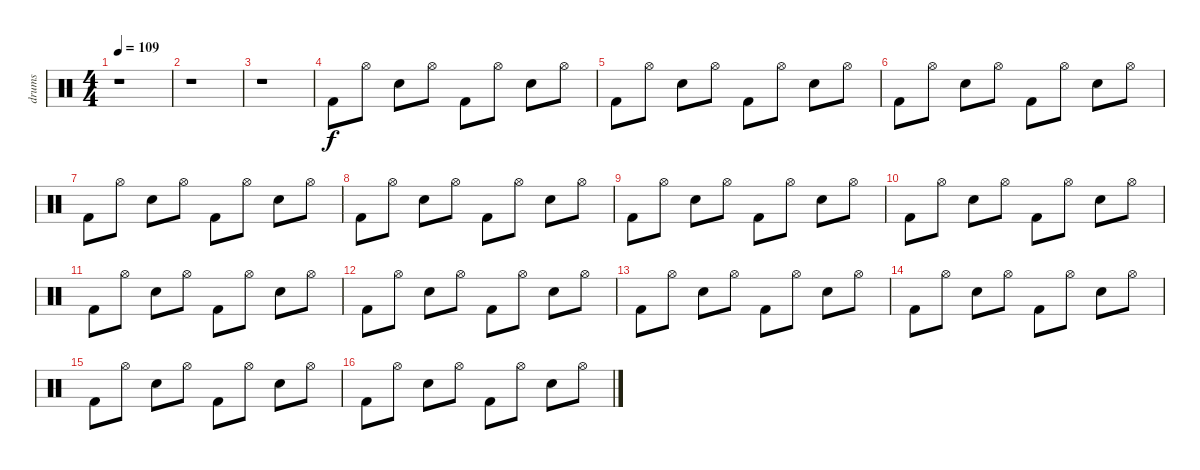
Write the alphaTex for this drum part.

\track ("drums" "drums") {instrument percussion}
\staff {score}
\articulation defaults
\ts (4 4)
\tempo 109
\clef neutral
\ks c
r.1{dy f} |
r.1 |
r.1 |
"Kick (hit) 2".8 "Hi-Hat (open)".8 "Snare (hit) 2".8 "Hi-Hat (open)".8 "Kick (hit) 2".8 "Hi-Hat (open)".8 "Snare (hit) 2".8 "Hi-Hat (open)".8 |
"Kick (hit) 2".8 "Hi-Hat (open)".8 "Snare (hit) 2".8 "Hi-Hat (open)".8 "Kick (hit) 2".8 "Hi-Hat (open)".8 "Snare (hit) 2".8 "Hi-Hat (open)".8 |
"Kick (hit) 2".8 "Hi-Hat (open)".8 "Snare (hit) 2".8 "Hi-Hat (open)".8 "Kick (hit) 2".8 "Hi-Hat (open)".8 "Snare (hit) 2".8 "Hi-Hat (open)".8 |
"Kick (hit) 2".8 "Hi-Hat (open)".8 "Snare (hit) 2".8 "Hi-Hat (open)".8 "Kick (hit) 2".8 "Hi-Hat (open)".8 "Snare (hit) 2".8 "Hi-Hat (open)".8 |
"Kick (hit) 2".8 "Hi-Hat (open)".8 "Snare (hit) 2".8 "Hi-Hat (open)".8 "Kick (hit) 2".8 "Hi-Hat (open)".8 "Snare (hit) 2".8 "Hi-Hat (open)".8 |
"Kick (hit) 2".8 "Hi-Hat (open)".8 "Snare (hit) 2".8 "Hi-Hat (open)".8 "Kick (hit) 2".8 "Hi-Hat (open)".8 "Snare (hit) 2".8 "Hi-Hat (open)".8 |
"Kick (hit) 2".8 "Hi-Hat (open)".8 "Snare (hit) 2".8 "Hi-Hat (open)".8 "Kick (hit) 2".8 "Hi-Hat (open)".8 "Snare (hit) 2".8 "Hi-Hat (open)".8 |
"Kick (hit) 2".8 "Hi-Hat (open)".8 "Snare (hit) 2".8 "Hi-Hat (open)".8 "Kick (hit) 2".8 "Hi-Hat (open)".8 "Snare (hit) 2".8 "Hi-Hat (open)".8 |
"Kick (hit) 2".8 "Hi-Hat (open)".8 "Snare (hit) 2".8 "Hi-Hat (open)".8 "Kick (hit) 2".8 "Hi-Hat (open)".8 "Snare (hit) 2".8 "Hi-Hat (open)".8 |
"Kick (hit) 2".8 "Hi-Hat (open)".8 "Snare (hit) 2".8 "Hi-Hat (open)".8 "Kick (hit) 2".8 "Hi-Hat (open)".8 "Snare (hit) 2".8 "Hi-Hat (open)".8 |
"Kick (hit) 2".8 "Hi-Hat (open)".8 "Snare (hit) 2".8 "Hi-Hat (open)".8 "Kick (hit) 2".8 "Hi-Hat (open)".8 "Snare (hit) 2".8 "Hi-Hat (open)".8 |
"Kick (hit) 2".8 "Hi-Hat (open)".8 "Snare (hit) 2".8 "Hi-Hat (open)".8 "Kick (hit) 2".8 "Hi-Hat (open)".8 "Snare (hit) 2".8 "Hi-Hat (open)".8 |
"Kick (hit) 2".8 "Hi-Hat (open)".8 "Snare (hit) 2".8 "Hi-Hat (open)".8 "Kick (hit) 2".8 "Hi-Hat (open)".8 "Snare (hit) 2".8 "Hi-Hat (open)".8
